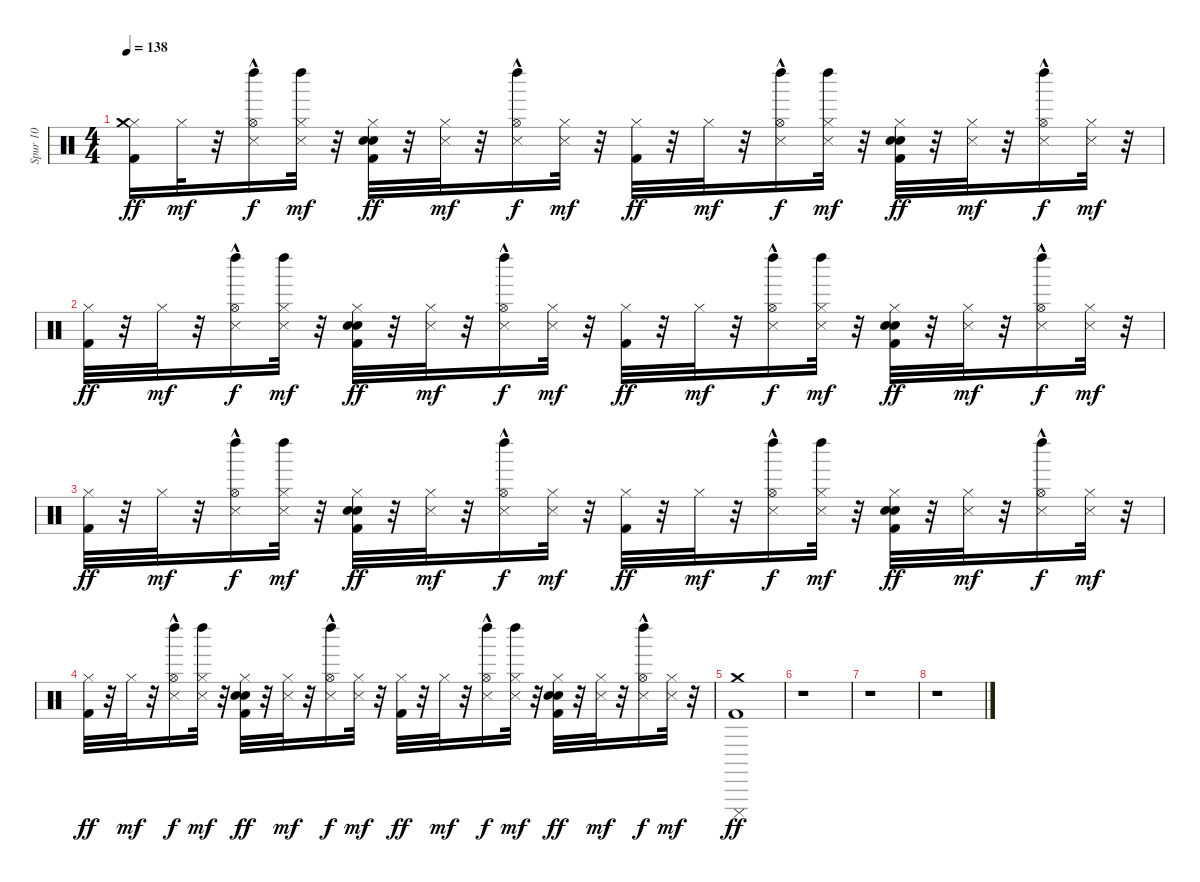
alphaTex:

\track ("Spur 10" "Spur 10") {instrument percussion}
\staff {score}
\articulation defaults
\ts (4 4)
\tempo 138
\clef neutral
\ks c
("Hi-Hat (closed)" "Crash medium (hit)" "Kick (hit) 2").16{dy ff} "Hi-Hat (closed)".32{dy mf} r.32 ("Snare (side stick) 3" "Hi-Hat (open)"{hac} "Left Maraca (hit)").16{dy f} ("Hi-Hat (closed)" "Snare (side stick) 3" "Left Maraca (hit)").32{dy mf} r.32 ("Hand Clap (hit)" "Hi-Hat (closed)" "Kick (hit) 2" "Electric Snare (hit)").32{dy ff} r.32 ("Hi-Hat (closed)" "Snare (side stick) 3").32{dy mf} r.32 ("Snare (side stick) 3" "Hi-Hat (open)"{hac} "Left Maraca (hit)").16{dy f} ("Hi-Hat (closed)" "Snare (side stick) 3").32{dy mf} r.32 ("Hi-Hat (closed)" "Kick (hit) 2").32{dy ff} r.32 "Hi-Hat (closed)".32{dy mf} r.32 ("Snare (side stick) 3" "Hi-Hat (open)"{hac} "Left Maraca (hit)").16{dy f} ("Hi-Hat (closed)" "Snare (side stick) 3" "Left Maraca (hit)").32{dy mf} r.32 ("Hand Clap (hit)" "Hi-Hat (closed)" "Kick (hit) 2" "Electric Snare (hit)").32{dy ff} r.32 ("Hi-Hat (closed)" "Snare (side stick) 3").32{dy mf} r.32 ("Snare (side stick) 3" "Hi-Hat (open)"{hac} "Left Maraca (hit)").16{dy f} ("Hi-Hat (closed)" "Snare (side stick) 3").32{dy mf} r.32 |
("Hi-Hat (closed)" "Kick (hit) 2").32{dy ff} r.32 "Hi-Hat (closed)".32{dy mf} r.32 ("Snare (side stick) 3" "Hi-Hat (open)"{hac} "Left Maraca (hit)").16{dy f} ("Hi-Hat (closed)" "Snare (side stick) 3" "Left Maraca (hit)").32{dy mf} r.32 ("Hand Clap (hit)" "Hi-Hat (closed)" "Kick (hit) 2" "Electric Snare (hit)").32{dy ff} r.32 ("Hi-Hat (closed)" "Snare (side stick) 3").32{dy mf} r.32 ("Snare (side stick) 3" "Hi-Hat (open)"{hac} "Left Maraca (hit)").16{dy f} ("Hi-Hat (closed)" "Snare (side stick) 3").32{dy mf} r.32 ("Hi-Hat (closed)" "Kick (hit) 2").32{dy ff} r.32 "Hi-Hat (closed)".32{dy mf} r.32 ("Snare (side stick) 3" "Hi-Hat (open)"{hac} "Left Maraca (hit)").16{dy f} ("Hi-Hat (closed)" "Snare (side stick) 3" "Left Maraca (hit)").32{dy mf} r.32 ("Hand Clap (hit)" "Hi-Hat (closed)" "Kick (hit) 2" "Electric Snare (hit)").32{dy ff} r.32 ("Hi-Hat (closed)" "Snare (side stick) 3").32{dy mf} r.32 ("Snare (side stick) 3" "Hi-Hat (open)"{hac} "Left Maraca (hit)").16{dy f} ("Hi-Hat (closed)" "Snare (side stick) 3").32{dy mf} r.32 |
("Hi-Hat (closed)" "Kick (hit) 2").32{dy ff} r.32 "Hi-Hat (closed)".32{dy mf} r.32 ("Snare (side stick) 3" "Hi-Hat (open)"{hac} "Left Maraca (hit)").16{dy f} ("Hi-Hat (closed)" "Snare (side stick) 3" "Left Maraca (hit)").32{dy mf} r.32 ("Hand Clap (hit)" "Hi-Hat (closed)" "Kick (hit) 2" "Electric Snare (hit)").32{dy ff} r.32 ("Hi-Hat (closed)" "Snare (side stick) 3").32{dy mf} r.32 ("Snare (side stick) 3" "Hi-Hat (open)"{hac} "Left Maraca (hit)").16{dy f} ("Hi-Hat (closed)" "Snare (side stick) 3").32{dy mf} r.32 ("Hi-Hat (closed)" "Kick (hit) 2").32{dy ff} r.32 "Hi-Hat (closed)".32{dy mf} r.32 ("Snare (side stick) 3" "Hi-Hat (open)"{hac} "Left Maraca (hit)").16{dy f} ("Hi-Hat (closed)" "Snare (side stick) 3" "Left Maraca (hit)").32{dy mf} r.32 ("Hand Clap (hit)" "Hi-Hat (closed)" "Kick (hit) 2" "Electric Snare (hit)").32{dy ff} r.32 ("Hi-Hat (closed)" "Snare (side stick) 3").32{dy mf} r.32 ("Snare (side stick) 3" "Hi-Hat (open)"{hac} "Left Maraca (hit)").16{dy f} ("Hi-Hat (closed)" "Snare (side stick) 3").32{dy mf} r.32 |
("Hi-Hat (closed)" "Kick (hit) 2").32{dy ff} r.32 "Hi-Hat (closed)".32{dy mf} r.32 ("Snare (side stick) 3" "Hi-Hat (open)"{hac} "Left Maraca (hit)").16{dy f} ("Hi-Hat (closed)" "Snare (side stick) 3" "Left Maraca (hit)").32{dy mf} r.32 ("Hand Clap (hit)" "Hi-Hat (closed)" "Kick (hit) 2" "Electric Snare (hit)").32{dy ff} r.32 ("Hi-Hat (closed)" "Snare (side stick) 3").32{dy mf} r.32 ("Snare (side stick) 3" "Hi-Hat (open)"{hac} "Left Maraca (hit)").16{dy f} ("Hi-Hat (closed)" "Snare (side stick) 3").32{dy mf} r.32 ("Hi-Hat (closed)" "Kick (hit) 2").32{dy ff} r.32 "Hi-Hat (closed)".32{dy mf} r.32 ("Snare (side stick) 3" "Hi-Hat (open)"{hac} "Left Maraca (hit)").16{dy f} ("Hi-Hat (closed)" "Snare (side stick) 3" "Left Maraca (hit)").32{dy mf} r.32 ("Hand Clap (hit)" "Hi-Hat (closed)" "Kick (hit) 2" "Electric Snare (hit)").32{dy ff} r.32 ("Hi-Hat (closed)" "Snare (side stick) 3").32{dy mf} r.32 ("Snare (side stick) 3" "Hi-Hat (open)"{hac} "Left Maraca (hit)").16{dy f} ("Hi-Hat (closed)" "Snare (side stick) 3").32{dy mf} r.32 |
("Cuica (mute)" "Crash medium (hit)" "Kick (hit) 2").1{dy ff} |
r.1 |
r.1 |
r.1
